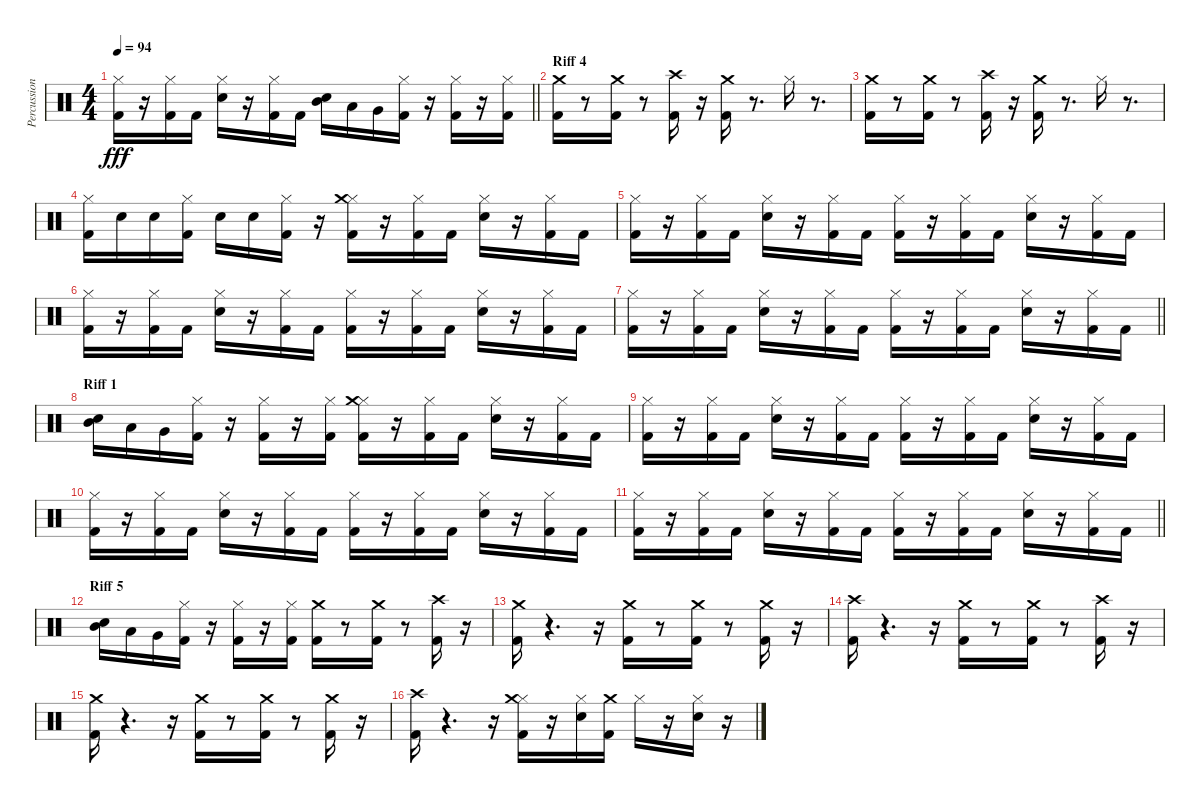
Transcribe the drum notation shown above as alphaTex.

\track ("Percussions" "Percussion") {instrument percussion}
\staff {score}
\articulation defaults
\ts (4 4)
\tempo 94
\clef neutral
\barLineRight lightlight
\ks c
("Kick (hit) 2" "Hi-Hat (closed)").16{dy fff} r.16 ("Kick (hit) 2" "Hi-Hat (closed)").16 "Kick (hit) 2".16 ("Electric Snare (hit)" "Hi-Hat (closed)").16 r.16 ("Kick (hit) 2" "Hi-Hat (closed)").16 "Kick (hit) 2".16 ("Electric Snare (hit)" "Mid Tom (hit)").16 "Low Tom (hit)".16 "Very Low Tom (hit)".16 ("Kick (hit) 2" "Hi-Hat (closed)").16 r.16 ("Kick (hit) 2" "Hi-Hat (closed)").16 r.16 ("Kick (hit) 2" "Hi-Hat (closed)").16 |
\section ("" "Riff 4")
("Kick (hit) 2" "Crash medium (hit)").16 r.8 ("Kick (hit) 2" "Crash medium (hit)").16 r.8 ("Kick (hit) 2" "Crash high (hit)").16 r.16 ("Kick (hit) 2" "Crash medium (hit)").16 r.8{d} "Hi-Hat (closed)".16 r.8{d} |
("Kick (hit) 2" "Crash medium (hit)").16 r.8 ("Kick (hit) 2" "Crash medium (hit)").16 r.8 ("Kick (hit) 2" "Crash high (hit)").16 r.16 ("Kick (hit) 2" "Crash medium (hit)").16 r.8{d} "Hi-Hat (closed)".16 r.8{d} |
("Kick (hit) 2" "Hi-Hat (closed)").16 "Electric Snare (hit)".16 "Electric Snare (hit)".16 ("Kick (hit) 2" "Hi-Hat (closed)").16 "Electric Snare (hit)".16 "Electric Snare (hit)".16 ("Kick (hit) 2" "Hi-Hat (closed)").16 r.16 ("Kick (hit) 2" "Hi-Hat (closed)" "Crash medium (hit)").16 r.16 ("Kick (hit) 2" "Hi-Hat (closed)").16 "Kick (hit) 2".16 ("Electric Snare (hit)" "Hi-Hat (closed)").16 r.16 ("Kick (hit) 2" "Hi-Hat (closed)").16 "Kick (hit) 2".16 |
("Kick (hit) 2" "Hi-Hat (closed)").16 r.16 ("Kick (hit) 2" "Hi-Hat (closed)").16 "Kick (hit) 2".16 ("Electric Snare (hit)" "Hi-Hat (closed)").16 r.16 ("Kick (hit) 2" "Hi-Hat (closed)").16 "Kick (hit) 2".16 ("Kick (hit) 2" "Hi-Hat (closed)").16 r.16 ("Kick (hit) 2" "Hi-Hat (closed)").16 "Kick (hit) 2".16 ("Electric Snare (hit)" "Hi-Hat (closed)").16 r.16 ("Kick (hit) 2" "Hi-Hat (closed)").16 "Kick (hit) 2".16 |
("Kick (hit) 2" "Hi-Hat (closed)").16 r.16 ("Kick (hit) 2" "Hi-Hat (closed)").16 "Kick (hit) 2".16 ("Electric Snare (hit)" "Hi-Hat (closed)").16 r.16 ("Kick (hit) 2" "Hi-Hat (closed)").16 "Kick (hit) 2".16 ("Kick (hit) 2" "Hi-Hat (closed)").16 r.16 ("Kick (hit) 2" "Hi-Hat (closed)").16 "Kick (hit) 2".16 ("Electric Snare (hit)" "Hi-Hat (closed)").16 r.16 ("Kick (hit) 2" "Hi-Hat (closed)").16 "Kick (hit) 2".16 |
\barLineRight lightlight
("Kick (hit) 2" "Hi-Hat (closed)").16 r.16 ("Kick (hit) 2" "Hi-Hat (closed)").16 "Kick (hit) 2".16 ("Electric Snare (hit)" "Hi-Hat (closed)").16 r.16 ("Kick (hit) 2" "Hi-Hat (closed)").16 "Kick (hit) 2".16 ("Kick (hit) 2" "Hi-Hat (closed)").16 r.16 ("Kick (hit) 2" "Hi-Hat (closed)").16 "Kick (hit) 2".16 ("Electric Snare (hit)" "Hi-Hat (closed)").16 r.16 ("Kick (hit) 2" "Hi-Hat (closed)").16 "Kick (hit) 2".16 |
\section ("" "Riff 1")
("Electric Snare (hit)" "Mid Tom (hit)").16 "Low Tom (hit)".16 "Very Low Tom (hit)".16 ("Kick (hit) 2" "Hi-Hat (closed)").16 r.16 ("Kick (hit) 2" "Hi-Hat (closed)").16 r.16 ("Kick (hit) 2" "Hi-Hat (closed)").16 ("Kick (hit) 2" "Hi-Hat (closed)" "Crash medium (hit)").16 r.16 ("Kick (hit) 2" "Hi-Hat (closed)").16 "Kick (hit) 2".16 ("Electric Snare (hit)" "Hi-Hat (closed)").16 r.16 ("Kick (hit) 2" "Hi-Hat (closed)").16 "Kick (hit) 2".16 |
("Kick (hit) 2" "Hi-Hat (closed)").16 r.16 ("Kick (hit) 2" "Hi-Hat (closed)").16 "Kick (hit) 2".16 ("Electric Snare (hit)" "Hi-Hat (closed)").16 r.16 ("Kick (hit) 2" "Hi-Hat (closed)").16 "Kick (hit) 2".16 ("Kick (hit) 2" "Hi-Hat (closed)").16 r.16 ("Kick (hit) 2" "Hi-Hat (closed)").16 "Kick (hit) 2".16 ("Electric Snare (hit)" "Hi-Hat (closed)").16 r.16 ("Kick (hit) 2" "Hi-Hat (closed)").16 "Kick (hit) 2".16 |
("Kick (hit) 2" "Hi-Hat (closed)").16 r.16 ("Kick (hit) 2" "Hi-Hat (closed)").16 "Kick (hit) 2".16 ("Electric Snare (hit)" "Hi-Hat (closed)").16 r.16 ("Kick (hit) 2" "Hi-Hat (closed)").16 "Kick (hit) 2".16 ("Kick (hit) 2" "Hi-Hat (closed)").16 r.16 ("Kick (hit) 2" "Hi-Hat (closed)").16 "Kick (hit) 2".16 ("Electric Snare (hit)" "Hi-Hat (closed)").16 r.16 ("Kick (hit) 2" "Hi-Hat (closed)").16 "Kick (hit) 2".16 |
\barLineRight lightlight
("Kick (hit) 2" "Hi-Hat (closed)").16 r.16 ("Kick (hit) 2" "Hi-Hat (closed)").16 "Kick (hit) 2".16 ("Electric Snare (hit)" "Hi-Hat (closed)").16 r.16 ("Kick (hit) 2" "Hi-Hat (closed)").16 "Kick (hit) 2".16 ("Kick (hit) 2" "Hi-Hat (closed)").16 r.16 ("Kick (hit) 2" "Hi-Hat (closed)").16 "Kick (hit) 2".16 ("Electric Snare (hit)" "Hi-Hat (closed)").16 r.16 ("Kick (hit) 2" "Hi-Hat (closed)").16 "Kick (hit) 2".16 |
\section ("" "Riff 5")
("Electric Snare (hit)" "Mid Tom (hit)").16 "Low Tom (hit)".16 "Very Low Tom (hit)".16 ("Kick (hit) 2" "Hi-Hat (closed)").16 r.16 ("Kick (hit) 2" "Hi-Hat (closed)").16 r.16 ("Kick (hit) 2" "Hi-Hat (closed)").16 ("Kick (hit) 2" "Crash medium (hit)").16 r.8 ("Kick (hit) 2" "Crash medium (hit)").16 r.8 ("Kick (hit) 2" "Crash high (hit)").16 r.16 |
("Kick (hit) 2" "Crash medium (hit)").16 r.4{d} r.16 ("Kick (hit) 2" "Crash medium (hit)").16 r.8 ("Kick (hit) 2" "Crash medium (hit)").16 r.8 ("Kick (hit) 2" "Crash medium (hit)").16 r.16 |
("Kick (hit) 2" "Crash high (hit)").16 r.4{d} r.16 ("Kick (hit) 2" "Crash medium (hit)").16 r.8 ("Kick (hit) 2" "Crash medium (hit)").16 r.8 ("Kick (hit) 2" "Crash high (hit)").16 r.16 |
("Kick (hit) 2" "Crash medium (hit)").16 r.4{d} r.16 ("Kick (hit) 2" "Crash medium (hit)").16 r.8 ("Kick (hit) 2" "Crash medium (hit)").16 r.8 ("Kick (hit) 2" "Crash medium (hit)").16 r.16 |
("Kick (hit) 2" "Crash high (hit)").16 r.4{d} r.16 ("Kick (hit) 2" "Hi-Hat (closed)" "Crash medium (hit)").16 r.16 ("Electric Snare (hit)" "Hi-Hat (closed)").16 ("Kick (hit) 2" "Crash medium (hit)").16 "Hi-Hat (closed)".16 r.16 ("Electric Snare (hit)" "Hi-Hat (closed)").16 r.16
